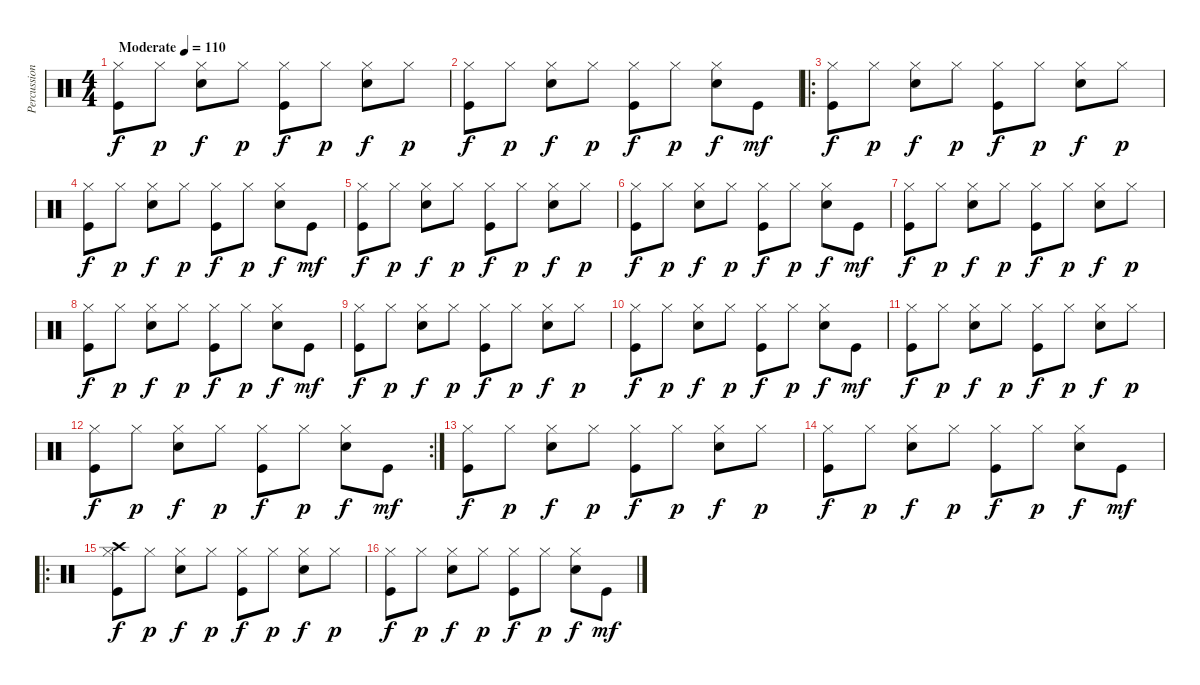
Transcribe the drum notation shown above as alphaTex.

\track ("Percussions" "Percussion") {instrument percussion}
\staff {score}
\articulation defaults
\ts (4 4)
\tempo (110 "Moderate")
\clef neutral
\ks c
("Kick (hit)" "Hi-Hat (closed)").8{dy f volume 10} "Hi-Hat (closed)".8{dy p} ("Snare (hit) 2" "Hi-Hat (closed)").8{dy f} "Hi-Hat (closed)".8{dy p} ("Kick (hit)" "Hi-Hat (closed)").8{dy f} "Hi-Hat (closed)".8{dy p} ("Snare (hit) 2" "Hi-Hat (closed)").8{dy f} "Hi-Hat (closed)".8{dy p} |
("Kick (hit)" "Hi-Hat (closed)").8{dy f} "Hi-Hat (closed)".8{dy p} ("Snare (hit) 2" "Hi-Hat (closed)").8{dy f} "Hi-Hat (closed)".8{dy p} ("Kick (hit)" "Hi-Hat (closed)").8{dy f} "Hi-Hat (closed)".8{dy p} ("Snare (hit) 2" "Hi-Hat (closed)").8{dy f} "Kick (hit)".8{dy mf} |
\ro
("Kick (hit)" "Hi-Hat (closed)").8{dy f volume 16} "Hi-Hat (closed)".8{dy p} ("Snare (hit) 2" "Hi-Hat (closed)").8{dy f} "Hi-Hat (closed)".8{dy p} ("Kick (hit)" "Hi-Hat (closed)").8{dy f} "Hi-Hat (closed)".8{dy p} ("Snare (hit) 2" "Hi-Hat (closed)").8{dy f} "Hi-Hat (closed)".8{dy p} |
("Kick (hit)" "Hi-Hat (closed)").8{dy f} "Hi-Hat (closed)".8{dy p} ("Snare (hit) 2" "Hi-Hat (closed)").8{dy f} "Hi-Hat (closed)".8{dy p} ("Kick (hit)" "Hi-Hat (closed)").8{dy f} "Hi-Hat (closed)".8{dy p} ("Snare (hit) 2" "Hi-Hat (closed)").8{dy f} "Kick (hit)".8{dy mf} |
("Kick (hit)" "Hi-Hat (closed)").8{dy f} "Hi-Hat (closed)".8{dy p} ("Snare (hit) 2" "Hi-Hat (closed)").8{dy f} "Hi-Hat (closed)".8{dy p} ("Kick (hit)" "Hi-Hat (closed)").8{dy f} "Hi-Hat (closed)".8{dy p} ("Snare (hit) 2" "Hi-Hat (closed)").8{dy f} "Hi-Hat (closed)".8{dy p} |
("Kick (hit)" "Hi-Hat (closed)").8{dy f} "Hi-Hat (closed)".8{dy p} ("Snare (hit) 2" "Hi-Hat (closed)").8{dy f} "Hi-Hat (closed)".8{dy p} ("Kick (hit)" "Hi-Hat (closed)").8{dy f} "Hi-Hat (closed)".8{dy p} ("Snare (hit) 2" "Hi-Hat (closed)").8{dy f} "Kick (hit)".8{dy mf} |
("Kick (hit)" "Hi-Hat (closed)").8{dy f} "Hi-Hat (closed)".8{dy p} ("Snare (hit) 2" "Hi-Hat (closed)").8{dy f} "Hi-Hat (closed)".8{dy p} ("Kick (hit)" "Hi-Hat (closed)").8{dy f} "Hi-Hat (closed)".8{dy p} ("Snare (hit) 2" "Hi-Hat (closed)").8{dy f} "Hi-Hat (closed)".8{dy p} |
("Kick (hit)" "Hi-Hat (closed)").8{dy f} "Hi-Hat (closed)".8{dy p} ("Snare (hit) 2" "Hi-Hat (closed)").8{dy f} "Hi-Hat (closed)".8{dy p} ("Kick (hit)" "Hi-Hat (closed)").8{dy f} "Hi-Hat (closed)".8{dy p} ("Snare (hit) 2" "Hi-Hat (closed)").8{dy f} "Kick (hit)".8{dy mf} |
("Kick (hit)" "Hi-Hat (closed)").8{dy f} "Hi-Hat (closed)".8{dy p} ("Snare (hit) 2" "Hi-Hat (closed)").8{dy f} "Hi-Hat (closed)".8{dy p} ("Kick (hit)" "Hi-Hat (closed)").8{dy f} "Hi-Hat (closed)".8{dy p} ("Snare (hit) 2" "Hi-Hat (closed)").8{dy f} "Hi-Hat (closed)".8{dy p} |
("Kick (hit)" "Hi-Hat (closed)").8{dy f} "Hi-Hat (closed)".8{dy p} ("Snare (hit) 2" "Hi-Hat (closed)").8{dy f} "Hi-Hat (closed)".8{dy p} ("Kick (hit)" "Hi-Hat (closed)").8{dy f} "Hi-Hat (closed)".8{dy p} ("Snare (hit) 2" "Hi-Hat (closed)").8{dy f} "Kick (hit)".8{dy mf} |
("Kick (hit)" "Hi-Hat (closed)").8{dy f} "Hi-Hat (closed)".8{dy p} ("Snare (hit) 2" "Hi-Hat (closed)").8{dy f} "Hi-Hat (closed)".8{dy p} ("Kick (hit)" "Hi-Hat (closed)").8{dy f} "Hi-Hat (closed)".8{dy p} ("Snare (hit) 2" "Hi-Hat (closed)").8{dy f} "Hi-Hat (closed)".8{dy p} |
\rc 2
("Kick (hit)" "Hi-Hat (closed)").8{dy f} "Hi-Hat (closed)".8{dy p} ("Snare (hit) 2" "Hi-Hat (closed)").8{dy f} "Hi-Hat (closed)".8{dy p} ("Kick (hit)" "Hi-Hat (closed)").8{dy f} "Hi-Hat (closed)".8{dy p} ("Snare (hit) 2" "Hi-Hat (closed)").8{dy f} "Kick (hit)".8{dy mf} |
("Kick (hit)" "Hi-Hat (closed)").8{dy f} "Hi-Hat (closed)".8{dy p} ("Snare (hit) 2" "Hi-Hat (closed)").8{dy f} "Hi-Hat (closed)".8{dy p} ("Kick (hit)" "Hi-Hat (closed)").8{dy f} "Hi-Hat (closed)".8{dy p} ("Snare (hit) 2" "Hi-Hat (closed)").8{dy f} "Hi-Hat (closed)".8{dy p} |
("Kick (hit)" "Hi-Hat (closed)").8{dy f} "Hi-Hat (closed)".8{dy p} ("Snare (hit) 2" "Hi-Hat (closed)").8{dy f} "Hi-Hat (closed)".8{dy p} ("Kick (hit)" "Hi-Hat (closed)").8{dy f} "Hi-Hat (closed)".8{dy p} ("Snare (hit) 2" "Hi-Hat (closed)").8{dy f} "Kick (hit)".8{dy mf} |
\ro
("Kick (hit)" "Hi-Hat (closed)" "Crash high (hit)").8{dy f} "Hi-Hat (closed)".8{dy p} ("Snare (hit) 2" "Hi-Hat (closed)").8{dy f} "Hi-Hat (closed)".8{dy p} ("Kick (hit)" "Hi-Hat (closed)").8{dy f} "Hi-Hat (closed)".8{dy p} ("Snare (hit) 2" "Hi-Hat (closed)").8{dy f} "Hi-Hat (closed)".8{dy p} |
("Kick (hit)" "Hi-Hat (closed)").8{dy f} "Hi-Hat (closed)".8{dy p} ("Snare (hit) 2" "Hi-Hat (closed)").8{dy f} "Hi-Hat (closed)".8{dy p} ("Kick (hit)" "Hi-Hat (closed)").8{dy f} "Hi-Hat (closed)".8{dy p} ("Snare (hit) 2" "Hi-Hat (closed)").8{dy f} "Kick (hit)".8{dy mf}
